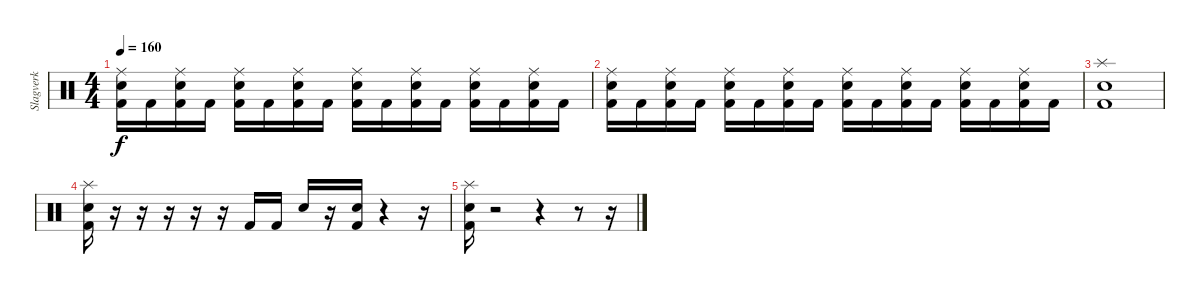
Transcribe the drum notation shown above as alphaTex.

\track ("Slagverk" "Slagverk") {instrument percussion}
\staff {score}
\articulation defaults
\ts (4 4)
\tempo 160
\clef neutral
\ks c
("Ride (middle)" "Electric Snare (hit)" "Kick (hit) 2").16{dy f} "Kick (hit) 2".16 ("Ride (middle)" "Electric Snare (hit)" "Kick (hit) 2").16 "Kick (hit) 2".16 ("Ride (middle)" "Electric Snare (hit)" "Kick (hit) 2").16 "Kick (hit) 2".16 ("Ride (middle)" "Electric Snare (hit)" "Kick (hit) 2").16 "Kick (hit) 2".16 ("Ride (middle)" "Electric Snare (hit)" "Kick (hit) 2").16 "Kick (hit) 2".16 ("Ride (middle)" "Electric Snare (hit)" "Kick (hit) 2").16 "Kick (hit) 2".16 ("Ride (middle)" "Electric Snare (hit)" "Kick (hit) 2").16 "Kick (hit) 2".16 ("Ride (middle)" "Electric Snare (hit)" "Kick (hit) 2").16 "Kick (hit) 2".16 |
("Ride (middle)" "Electric Snare (hit)" "Kick (hit) 2").16 "Kick (hit) 2".16 ("Ride (middle)" "Electric Snare (hit)" "Kick (hit) 2").16 "Kick (hit) 2".16 ("Ride (middle)" "Electric Snare (hit)" "Kick (hit) 2").16 "Kick (hit) 2".16 ("Ride (middle)" "Electric Snare (hit)" "Kick (hit) 2").16 "Kick (hit) 2".16 ("Ride (middle)" "Electric Snare (hit)" "Kick (hit) 2").16 "Kick (hit) 2".16 ("Ride (middle)" "Electric Snare (hit)" "Kick (hit) 2").16 "Kick (hit) 2".16 ("Ride (middle)" "Electric Snare (hit)" "Kick (hit) 2").16 "Kick (hit) 2".16 ("Ride (middle)" "Electric Snare (hit)" "Kick (hit) 2").16 "Kick (hit) 2".16 |
("Splash (hit)" "Electric Snare (hit)" "Kick (hit) 2").1 |
("Splash (hit)" "Electric Snare (hit)" "Kick (hit) 2").16 r.16 r.16 r.16 r.16 r.16 "Kick (hit) 2".16 "Kick (hit) 2".16 "Electric Snare (hit)".16 r.16 ("Electric Snare (hit)" "Kick (hit) 2").16 r.4 r.16 |
("Splash (hit)" "Electric Snare (hit)" "Kick (hit) 2").16 r.2 r.4 r.8 r.16
